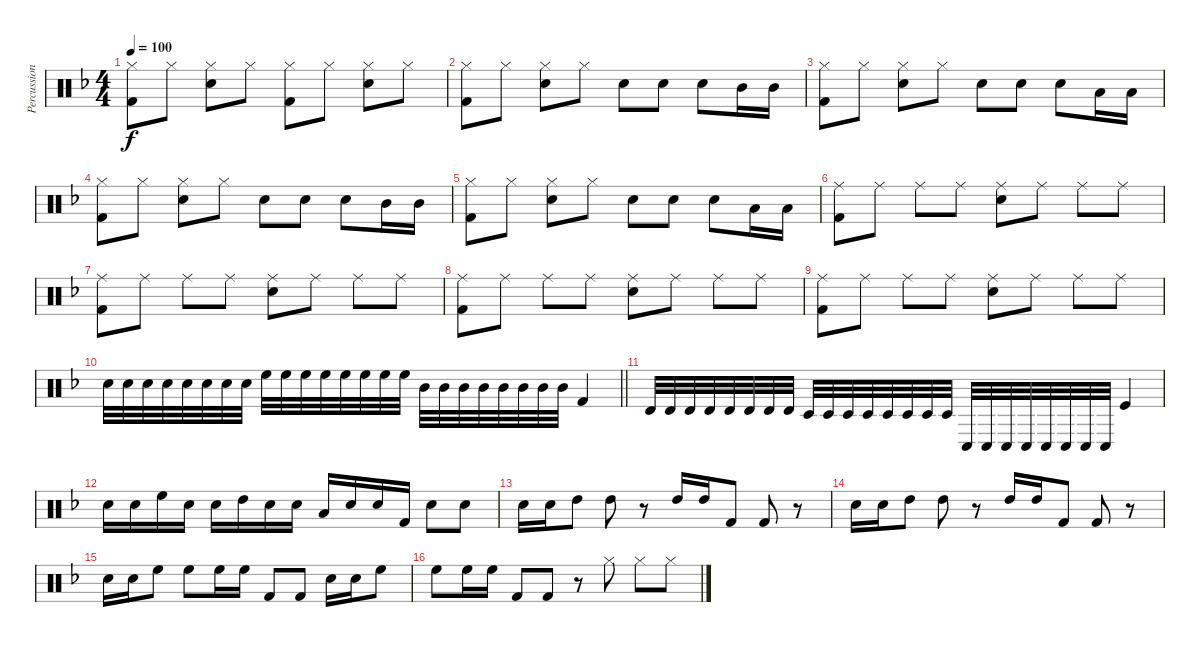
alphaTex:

\track ("Percussion" "Percussion") {instrument percussion}
\staff {score}
\articulation defaults
\ts (4 4)
\tempo 100
\clef neutral
\ks f
("Kick (hit) 2" "Hi-Hat (closed)").8{dy f} "Hi-Hat (closed)".8 ("Hi-Hat (closed)" "Snare (hit) 2").8 "Hi-Hat (closed)".8 ("Kick (hit) 2" "Hi-Hat (closed)").8 "Hi-Hat (closed)".8 ("Hi-Hat (closed)" "Snare (hit) 2").8 "Hi-Hat (closed)".8 |
("Hi-Hat (closed)" "Kick (hit) 2").8 "Hi-Hat (closed)".8 ("Hi-Hat (closed)" "Snare (hit) 2").8 "Hi-Hat (closed)".8 "Snare (hit) 2".8 "Snare (hit) 2".8 "Snare (hit) 2".8 "Mid Tom (hit)".16 "Mid Tom (hit)".16 |
("Hi-Hat (closed)" "Kick (hit) 2").8 "Hi-Hat (closed)".8 ("Hi-Hat (closed)" "Snare (hit) 2").8 "Hi-Hat (closed)".8 "Snare (hit) 2".8 "Snare (hit) 2".8 "Snare (hit) 2".8 "Low Floor Tom (hit)".16 "Low Floor Tom (hit)".16 |
("Hi-Hat (closed)" "Kick (hit) 2").8 "Hi-Hat (closed)".8 ("Hi-Hat (closed)" "Snare (hit) 2").8 "Hi-Hat (closed)".8 "Snare (hit) 2".8 "Snare (hit) 2".8 "Snare (hit) 2".8 "Mid Tom (hit)".16 "Mid Tom (hit)".16 |
("Hi-Hat (closed)" "Kick (hit) 2").8 "Hi-Hat (closed)".8 ("Hi-Hat (closed)" "Snare (hit) 2").8 "Hi-Hat (closed)".8 "Snare (hit) 2".8 "Snare (hit) 2".8 "Snare (hit) 2".8 "Low Floor Tom (hit)".16 "Low Floor Tom (hit)".16 |
("Ride (middle)" "Kick (hit) 2").8 "Ride (middle)".8 "Ride (middle)".8 "Ride (middle)".8 ("Snare (hit) 2" "Ride (middle)").8 "Ride (middle)".8 "Ride (middle)".8 "Ride (middle)".8 |
("Ride (middle)" "Kick (hit) 2").8 "Ride (middle)".8 "Ride (middle)".8 "Ride (middle)".8 ("Snare (hit) 2" "Ride (middle)").8 "Ride (middle)".8 "Ride (middle)".8 "Ride (middle)".8 |
("Ride (middle)" "Kick (hit) 2").8 "Ride (middle)".8 "Ride (middle)".8 "Ride (middle)".8 ("Snare (hit) 2" "Ride (middle)").8 "Ride (middle)".8 "Ride (middle)".8 "Ride (middle)".8 |
("Ride (middle)" "Kick (hit) 2").8 "Ride (middle)".8 "Ride (middle)".8 "Ride (middle)".8 ("Snare (hit) 2" "Ride (middle)").8 "Ride (middle)".8 "Ride (middle)".8 "Ride (middle)".8 |
\barLineRight lightlight "Snare (hit) 2".32 "Snare (hit) 2".32 "Snare (hit) 2".32 "Snare (hit) 2".32 "Snare (hit) 2".32 "Snare (hit) 2".32 "Snare (hit) 2".32 "Snare (hit) 2".32 "High Floor Tom (hit)".32 "High Floor Tom (hit)".32 "High Floor Tom (hit)".32 "High Floor Tom (hit)".32 "High Floor Tom (hit)".32 "High Floor Tom (hit)".32 "High Floor Tom (hit)".32 "High Floor Tom (hit)".32 "Mid Tom (hit)".32 "Mid Tom (hit)".32 "Mid Tom (hit)".32 "Mid Tom (hit)".32 "Mid Tom (hit)".32 "Mid Tom (hit)".32 "Mid Tom (hit)".32 "Mid Tom (hit)".32 "Kick (hit) 2".4
|
"Timbale high (hit)".32 "Timbale high (hit)".32 "Timbale high (hit)".32 "Timbale high (hit)".32 "Timbale high (hit)".32 "Timbale high (hit)".32 "Timbale high (hit)".32 "Timbale high (hit)".32 "Timbale low (hit)".32 "Timbale low (hit)".32 "Timbale low (hit)".32 "Timbale low (hit)".32 "Timbale low (hit)".32 "Timbale low (hit)".32 "Timbale low (hit)".32 "Timbale low (hit)".32 "Conga low (hit)".32 "Conga low (hit)".32 "Conga low (hit)".32 "Conga low (hit)".32 "Conga low (hit)".32 "Conga low (hit)".32 "Conga low (hit)".32 "Conga low (hit)".32 "Kick (hit)".4 |
"Snare (hit) 2".16 "Snare (hit) 2".16 "High Floor Tom (hit)".16 "Snare (hit) 2".16 "Snare (hit) 2".16 "High Tom (hit)".16 "Snare (hit) 2".16 "Snare (hit) 2".16 "Low Floor Tom (hit)".16 "Snare (hit) 2".16 "Snare (hit) 2".16 "Kick (hit) 2".16 "Snare (hit) 2".8 "Snare (hit) 2".8 |
"Snare (hit) 2".16 "Snare (hit) 2".16 "High Tom (hit)".8 "High Tom (hit)".8 r.8 "High Tom (hit)".16 "High Tom (hit)".16 "Kick (hit) 2".8 "Kick (hit) 2".8 r.8 |
"Snare (hit) 2".16 "Snare (hit) 2".16 "High Tom (hit)".8 "High Tom (hit)".8 r.8 "High Tom (hit)".16 "High Tom (hit)".16 "Kick (hit) 2".8 "Kick (hit) 2".8 r.8 |
"Snare (hit) 2".16 "Snare (hit) 2".16 "High Floor Tom (hit)".8 "High Floor Tom (hit)".8 "High Floor Tom (hit)".16 "High Floor Tom (hit)".16 "Kick (hit) 2".8 "Kick (hit) 2".8 "Snare (hit) 2".16 "Snare (hit) 2".16 "High Floor Tom (hit)".8 |
"High Floor Tom (hit)".8 "High Floor Tom (hit)".16 "High Floor Tom (hit)".16 "Kick (hit) 2".8 "Kick (hit) 2".8 r.8 "Hi-Hat (closed)".8 "Hi-Hat (closed)".8 "Hi-Hat (closed)".8
